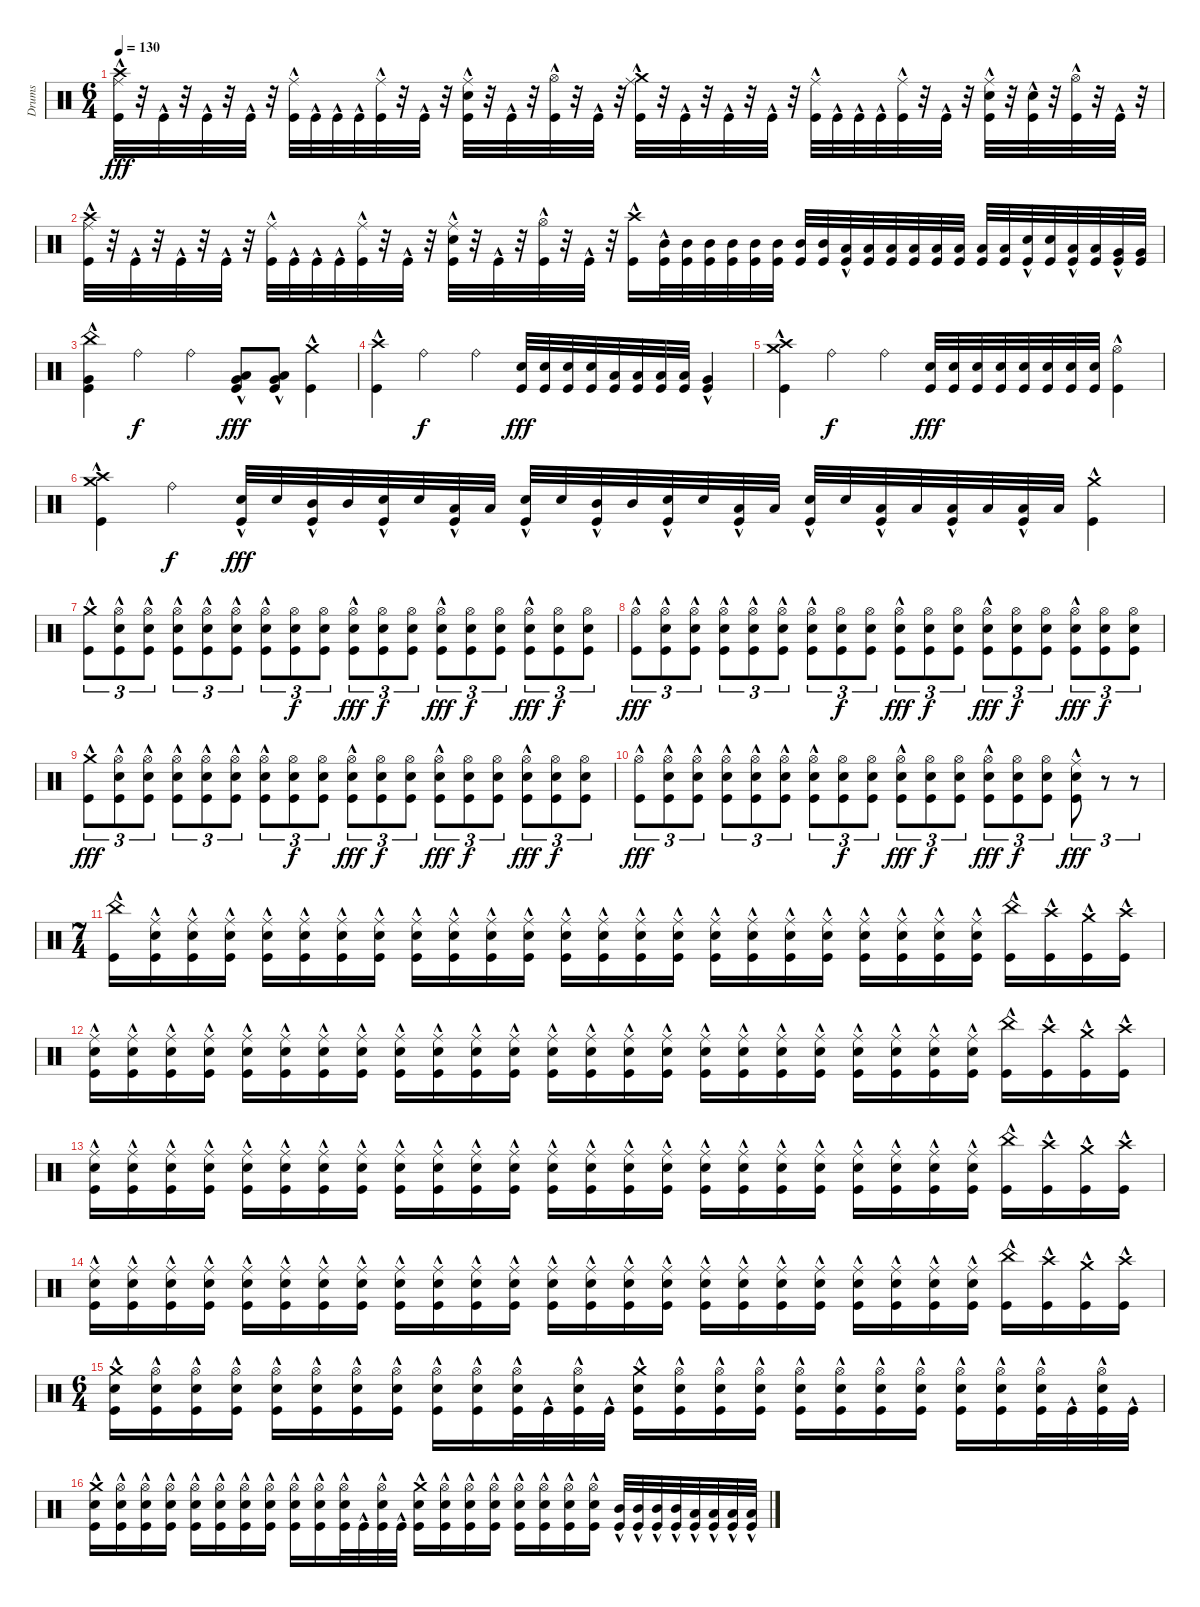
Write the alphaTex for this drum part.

\track ("Drums" "Drums") {instrument percussion}
\staff {score}
\articulation defaults
\ts (6 4)
\tempo 130
\clef neutral
\ks c
("Crash high (hit)" "Ride (middle)" "Kick (hit)"{hac}).32{dy fff} r.32 "Kick (hit)"{hac}.32 r.32 "Kick (hit)"{hac}.32 r.32 "Kick (hit)"{hac}.32 r.32 ("Ride (middle)" "Kick (hit)"{hac}).32 "Kick (hit)"{hac}.32 "Kick (hit)"{hac}.32 "Kick (hit)"{hac}.32 ("Ride (middle)" "Kick (hit)"{hac}).32 r.32 "Kick (hit)"{hac}.32 r.32 ("Ride (middle)" "Snare (hit) 2" "Kick (hit)"{hac}).32 r.32 "Kick (hit)"{hac}.32 r.32 ("Hi-Hat (open)" "Kick (hit)"{hac}).32 r.32 "Kick (hit)"{hac}.32 r.32 ("Crash medium (hit)" "Ride (middle)" "Kick (hit)"{hac}).32 r.32 "Kick (hit)"{hac}.32 r.32 "Kick (hit)"{hac}.32 r.32 "Kick (hit)"{hac}.32 r.32 ("Ride (middle)" "Kick (hit)"{hac}).32 "Kick (hit)"{hac}.32 "Kick (hit)"{hac}.32 "Kick (hit)"{hac}.32 ("Ride (middle)" "Kick (hit)"{hac}).32 r.32 "Kick (hit)"{hac}.32 r.32 ("Ride (middle)" "Snare (hit) 2" "Kick (hit)"{hac}).32 r.32 ("Snare (hit) 2" "Kick (hit)"{hac}).32 r.32 ("Hi-Hat (open)" "Kick (hit)"{hac}).32 r.32 "Kick (hit)"{hac}.32 r.32 |
("Crash high (hit)" "Ride (middle)" "Kick (hit)"{hac}).32 r.32 "Kick (hit)"{hac}.32 r.32 "Kick (hit)"{hac}.32 r.32 "Kick (hit)"{hac}.32 r.32 ("Ride (middle)" "Kick (hit)"{hac}).32 "Kick (hit)"{hac}.32 "Kick (hit)"{hac}.32 "Kick (hit)"{hac}.32 ("Ride (middle)" "Kick (hit)"{hac}).32 r.32 "Kick (hit)"{hac}.32 r.32 ("Ride (middle)" "Snare (hit) 2" "Kick (hit)"{hac}).32 r.32 "Kick (hit)"{hac}.32 r.32 ("Hi-Hat (open)" "Kick (hit)"{hac}).32 r.32 "Kick (hit)"{hac}.32 r.32 ("Crash high (hit)" "Kick (hit)"{hac}).16 ("Mid Tom (hit)" "Kick (hit)"{hac}).32 ("Mid Tom (hit)" "Kick (hit)").32 ("Mid Tom (hit)" "Kick (hit)").32 ("Mid Tom (hit)" "Kick (hit)").32 ("Mid Tom (hit)" "Kick (hit)").32 ("Mid Tom (hit)" "Kick (hit)").32 ("Mid Tom (hit)" "Kick (hit)").32 ("Mid Tom (hit)" "Kick (hit)").32 ("Low Tom (hit)" "Kick (hit)"{hac}).32 ("Low Tom (hit)" "Kick (hit)").32 ("Low Tom (hit)" "Kick (hit)").32 ("Low Tom (hit)" "Kick (hit)").32 ("Low Tom (hit)" "Kick (hit)").32 ("Low Tom (hit)" "Kick (hit)").32 ("Low Tom (hit)" "Kick (hit)").32 ("Low Tom (hit)" "Kick (hit)").32 ("Snare (hit) 2" "Kick (hit)"{hac}).32 ("Snare (hit) 2" "Kick (hit)").32 ("Low Tom (hit)" "Kick (hit)"{hac}).32 ("Low Tom (hit)" "Kick (hit)").32 ("Very Low Tom (hit)" "Kick (hit)"{hac}).32 ("Very Low Tom (hit)" "Kick (hit)").32 |
("China (hit)" "Very Low Tom (hit)" "Kick (hit)"{hac}).4 "Ride (bell)".2{dy f} "Ride (bell)".4 ("Very Low Tom (hit)" "Low Tom (hit)" "Kick (hit)"{hac}).8{dy fff} ("Very Low Tom (hit)" "Low Tom (hit)" "Kick (hit)"{hac}).8 ("Crash medium (hit)" "Kick (hit)"{hac}).4 |
("Crash high (hit)" "Kick (hit)"{hac}).4 "Ride (bell)".2{dy f} "Ride (bell)".4 ("Snare (hit) 2" "Kick (hit)").32{dy fff} ("Snare (hit) 2" "Kick (hit)").32 ("Snare (hit) 2" "Kick (hit)").32 ("Snare (hit) 2" "Kick (hit)").32 ("Low Tom (hit)" "Kick (hit)").32 ("Low Tom (hit)" "Kick (hit)").32 ("Low Tom (hit)" "Kick (hit)").32 ("Low Tom (hit)" "Kick (hit)").32 ("Very Low Tom (hit)"{hac} "Kick (hit)"{hac}).4 |
("Crash medium (hit)" "Crash high (hit)" "Kick (hit)"{hac}).4 "Ride (bell)".2{dy f} "Ride (bell)".4 ("Snare (hit) 2" "Kick (hit)").32{dy fff} ("Snare (hit) 2" "Kick (hit)").32 ("Snare (hit) 2" "Kick (hit)").32 ("Snare (hit) 2" "Kick (hit)").32 ("Snare (hit) 2" "Kick (hit)").32 ("Snare (hit) 2" "Kick (hit)").32 ("Snare (hit) 2" "Kick (hit)").32 ("Snare (hit) 2" "Kick (hit)").32 ("Hi-Hat (open)"{hac} "Kick (hit)").4 |
("Crash medium (hit)" "Crash high (hit)" "Kick (hit)"{hac}).4 "Ride (bell)".4{dy f} ("Snare (hit) 2" "Kick (hit)"{hac}).32{dy fff} "Snare (hit) 2".32 ("Mid Tom (hit)" "Kick (hit)"{hac}).32 "Mid Tom (hit)".32 ("Snare (hit) 2" "Kick (hit)"{hac}).32 "Snare (hit) 2".32 ("Low Tom (hit)" "Kick (hit)"{hac}).32 "Low Tom (hit)".32 ("Snare (hit) 2" "Kick (hit)"{hac}).32 "Snare (hit) 2".32 ("Mid Tom (hit)" "Kick (hit)"{hac}).32 "Mid Tom (hit)".32 ("Snare (hit) 2" "Kick (hit)"{hac}).32 "Snare (hit) 2".32 ("Low Tom (hit)" "Kick (hit)"{hac}).32 "Low Tom (hit)".32 ("Snare (hit) 2" "Kick (hit)"{hac}).32 "Snare (hit) 2".32 ("Low Tom (hit)" "Kick (hit)"{hac}).32 "Low Tom (hit)".32 ("Low Tom (hit)" "Kick (hit)"{hac}).32 "Low Tom (hit)".32 ("Low Tom (hit)" "Kick (hit)"{hac}).32 "Low Tom (hit)".32 ("Crash medium (hit)" "Kick (hit)"{hac}).4 |
("Crash medium (hit)" "Kick (hit)"{hac}).8{tu (3 2)} ("Hi-Hat (open)" "Snare (hit) 2" "Kick (hit)"{hac}).8{tu (3 2)} ("Hi-Hat (open)" "Snare (hit) 2" "Kick (hit)"{hac}).8{tu (3 2)} ("Hi-Hat (open)"{hac} "Snare (hit) 2" "Kick (hit)"{hac}).8{tu (3 2)} ("Hi-Hat (open)" "Snare (hit) 2" "Kick (hit)"{hac}).8{tu (3 2)} ("Hi-Hat (open)" "Snare (hit) 2" "Kick (hit)"{hac}).8{tu (3 2)} ("Hi-Hat (open)"{hac} "Snare (hit) 2" "Kick (hit)").8{tu (3 2)} ("Hi-Hat (open)" "Snare (hit) 2" "Kick (hit)").8{tu (3 2) dy f} ("Hi-Hat (open)" "Snare (hit) 2" "Kick (hit)").8{tu (3 2)} ("Hi-Hat (open)"{hac} "Snare (hit) 2" "Kick (hit)").8{tu (3 2) dy fff} ("Hi-Hat (open)" "Snare (hit) 2" "Kick (hit)").8{tu (3 2) dy f} ("Hi-Hat (open)" "Snare (hit) 2" "Kick (hit)").8{tu (3 2)} ("Hi-Hat (open)"{hac} "Snare (hit) 2" "Kick (hit)").8{tu (3 2) dy fff} ("Hi-Hat (open)" "Snare (hit) 2" "Kick (hit)").8{tu (3 2) dy f} ("Hi-Hat (open)" "Snare (hit) 2" "Kick (hit)").8{tu (3 2)} ("Hi-Hat (open)"{hac} "Snare (hit) 2" "Kick (hit)").8{tu (3 2) dy fff} ("Hi-Hat (open)" "Snare (hit) 2" "Kick (hit)").8{tu (3 2) dy f} ("Hi-Hat (open)" "Snare (hit) 2" "Kick (hit)").8{tu (3 2)} |
("Hi-Hat (open)"{hac} "Kick (hit)"{hac}).8{tu (3 2) dy fff} ("Hi-Hat (open)" "Snare (hit) 2" "Kick (hit)"{hac}).8{tu (3 2)} ("Hi-Hat (open)" "Snare (hit) 2" "Kick (hit)"{hac}).8{tu (3 2)} ("Hi-Hat (open)"{hac} "Snare (hit) 2" "Kick (hit)"{hac}).8{tu (3 2)} ("Hi-Hat (open)" "Snare (hit) 2" "Kick (hit)"{hac}).8{tu (3 2)} ("Hi-Hat (open)" "Snare (hit) 2" "Kick (hit)"{hac}).8{tu (3 2)} ("Hi-Hat (open)"{hac} "Snare (hit) 2" "Kick (hit)").8{tu (3 2)} ("Hi-Hat (open)" "Snare (hit) 2" "Kick (hit)").8{tu (3 2) dy f} ("Hi-Hat (open)" "Snare (hit) 2" "Kick (hit)").8{tu (3 2)} ("Hi-Hat (open)"{hac} "Snare (hit) 2" "Kick (hit)").8{tu (3 2) dy fff} ("Hi-Hat (open)" "Snare (hit) 2" "Kick (hit)").8{tu (3 2) dy f} ("Hi-Hat (open)" "Snare (hit) 2" "Kick (hit)").8{tu (3 2)} ("Hi-Hat (open)"{hac} "Snare (hit) 2" "Kick (hit)").8{tu (3 2) dy fff} ("Hi-Hat (open)" "Snare (hit) 2" "Kick (hit)").8{tu (3 2) dy f} ("Hi-Hat (open)" "Snare (hit) 2" "Kick (hit)").8{tu (3 2)} ("Hi-Hat (open)"{hac} "Snare (hit) 2" "Kick (hit)").8{tu (3 2) dy fff} ("Hi-Hat (open)" "Snare (hit) 2" "Kick (hit)").8{tu (3 2) dy f} ("Hi-Hat (open)" "Snare (hit) 2" "Kick (hit)").8{tu (3 2)} |
("Crash medium (hit)" "Kick (hit)"{hac}).8{tu (3 2) dy fff} ("Hi-Hat (open)" "Snare (hit) 2" "Kick (hit)"{hac}).8{tu (3 2)} ("Hi-Hat (open)" "Snare (hit) 2" "Kick (hit)"{hac}).8{tu (3 2)} ("Hi-Hat (open)"{hac} "Snare (hit) 2" "Kick (hit)"{hac}).8{tu (3 2)} ("Hi-Hat (open)" "Snare (hit) 2" "Kick (hit)"{hac}).8{tu (3 2)} ("Hi-Hat (open)" "Snare (hit) 2" "Kick (hit)"{hac}).8{tu (3 2)} ("Hi-Hat (open)"{hac} "Snare (hit) 2" "Kick (hit)").8{tu (3 2)} ("Hi-Hat (open)" "Snare (hit) 2" "Kick (hit)").8{tu (3 2) dy f} ("Hi-Hat (open)" "Snare (hit) 2" "Kick (hit)").8{tu (3 2)} ("Hi-Hat (open)"{hac} "Snare (hit) 2" "Kick (hit)").8{tu (3 2) dy fff} ("Hi-Hat (open)" "Snare (hit) 2" "Kick (hit)").8{tu (3 2) dy f} ("Hi-Hat (open)" "Snare (hit) 2" "Kick (hit)").8{tu (3 2)} ("Hi-Hat (open)"{hac} "Snare (hit) 2" "Kick (hit)").8{tu (3 2) dy fff} ("Hi-Hat (open)" "Snare (hit) 2" "Kick (hit)").8{tu (3 2) dy f} ("Hi-Hat (open)" "Snare (hit) 2" "Kick (hit)").8{tu (3 2)} ("Hi-Hat (open)"{hac} "Snare (hit) 2" "Kick (hit)").8{tu (3 2) dy fff} ("Hi-Hat (open)" "Snare (hit) 2" "Kick (hit)").8{tu (3 2) dy f} ("Hi-Hat (open)" "Snare (hit) 2" "Kick (hit)").8{tu (3 2)} |
("Hi-Hat (open)"{hac} "Kick (hit)"{hac}).8{tu (3 2) dy fff} ("Hi-Hat (open)" "Snare (hit) 2" "Kick (hit)"{hac}).8{tu (3 2)} ("Hi-Hat (open)" "Snare (hit) 2" "Kick (hit)"{hac}).8{tu (3 2)} ("Hi-Hat (open)"{hac} "Snare (hit) 2" "Kick (hit)"{hac}).8{tu (3 2)} ("Hi-Hat (open)" "Snare (hit) 2" "Kick (hit)"{hac}).8{tu (3 2)} ("Hi-Hat (open)" "Snare (hit) 2" "Kick (hit)"{hac}).8{tu (3 2)} ("Hi-Hat (open)"{hac} "Snare (hit) 2" "Kick (hit)").8{tu (3 2)} ("Hi-Hat (open)" "Snare (hit) 2" "Kick (hit)").8{tu (3 2) dy f} ("Hi-Hat (open)" "Snare (hit) 2" "Kick (hit)").8{tu (3 2)} ("Hi-Hat (open)"{hac} "Snare (hit) 2" "Kick (hit)").8{tu (3 2) dy fff} ("Hi-Hat (open)" "Snare (hit) 2" "Kick (hit)").8{tu (3 2) dy f} ("Hi-Hat (open)" "Snare (hit) 2" "Kick (hit)").8{tu (3 2)} ("Hi-Hat (open)"{hac} "Snare (hit) 2" "Kick (hit)").8{tu (3 2) dy fff} ("Hi-Hat (open)" "Snare (hit) 2" "Kick (hit)").8{tu (3 2) dy f} ("Hi-Hat (open)" "Snare (hit) 2" "Kick (hit)").8{tu (3 2)} ("Ride (middle)"{hac} "Snare (hit) 2" "Kick (hit)").8{tu (3 2) dy fff} r.8{tu (3 2)} r.8{tu (3 2)} |
\ts (7 4)
("China (hit)" "Kick (hit)"{hac}).16 ("Ride (middle)" "Snare (hit) 2" "Kick (hit)"{hac}).16 ("Ride (middle)"{hac} "Snare (hit) 2" "Kick (hit)"{hac}).16 ("Ride (middle)" "Snare (hit) 2" "Kick (hit)"{hac}).16 ("Ride (middle)"{hac} "Snare (hit) 2" "Kick (hit)"{hac}).16 ("Ride (middle)" "Snare (hit) 2" "Kick (hit)"{hac}).16 ("Ride (middle)"{hac} "Snare (hit) 2" "Kick (hit)"{hac}).16 ("Ride (middle)" "Snare (hit) 2" "Kick (hit)"{hac}).16 ("Ride (middle)"{hac} "Snare (hit) 2" "Kick (hit)"{hac}).16 ("Ride (middle)" "Snare (hit) 2" "Kick (hit)"{hac}).16 ("Ride (middle)"{hac} "Snare (hit) 2" "Kick (hit)"{hac}).16 ("Ride (middle)" "Snare (hit) 2" "Kick (hit)"{hac}).16 ("Ride (middle)"{hac} "Snare (hit) 2" "Kick (hit)"{hac}).16 ("Ride (middle)" "Snare (hit) 2" "Kick (hit)"{hac}).16 ("Ride (middle)"{hac} "Snare (hit) 2" "Kick (hit)"{hac}).16 ("Ride (middle)" "Snare (hit) 2" "Kick (hit)"{hac}).16 ("Ride (middle)"{hac} "Snare (hit) 2" "Kick (hit)"{hac}).16 ("Ride (middle)" "Snare (hit) 2" "Kick (hit)"{hac}).16 ("Ride (middle)"{hac} "Snare (hit) 2" "Kick (hit)"{hac}).16 ("Ride (middle)" "Snare (hit) 2" "Kick (hit)"{hac}).16 ("Ride (middle)"{hac} "Snare (hit) 2" "Kick (hit)"{hac}).16 ("Ride (middle)" "Snare (hit) 2" "Kick (hit)"{hac}).16 ("Ride (middle)"{hac} "Snare (hit) 2" "Kick (hit)"{hac}).16 ("Ride (middle)" "Snare (hit) 2" "Kick (hit)"{hac}).16 ("China (hit)" "Kick (hit)"{hac}).16 ("Crash high (hit)" "Kick (hit)"{hac}).16 ("Crash medium (hit)" "Kick (hit)"{hac}).16 ("Crash high (hit)" "Kick (hit)"{hac}).16 |
("Ride (middle)"{hac} "Snare (hit) 2" "Kick (hit)"{hac}).16 ("Ride (middle)" "Snare (hit) 2" "Kick (hit)"{hac}).16 ("Ride (middle)"{hac} "Snare (hit) 2" "Kick (hit)"{hac}).16 ("Ride (middle)" "Snare (hit) 2" "Kick (hit)"{hac}).16 ("Ride (middle)"{hac} "Snare (hit) 2" "Kick (hit)"{hac}).16 ("Ride (middle)" "Snare (hit) 2" "Kick (hit)"{hac}).16 ("Ride (middle)"{hac} "Snare (hit) 2" "Kick (hit)"{hac}).16 ("Ride (middle)" "Snare (hit) 2" "Kick (hit)"{hac}).16 ("Ride (middle)"{hac} "Snare (hit) 2" "Kick (hit)"{hac}).16 ("Ride (middle)" "Snare (hit) 2" "Kick (hit)"{hac}).16 ("Ride (middle)"{hac} "Snare (hit) 2" "Kick (hit)"{hac}).16 ("Ride (middle)" "Snare (hit) 2" "Kick (hit)"{hac}).16 ("Ride (middle)"{hac} "Snare (hit) 2" "Kick (hit)"{hac}).16 ("Ride (middle)" "Snare (hit) 2" "Kick (hit)"{hac}).16 ("Ride (middle)"{hac} "Snare (hit) 2" "Kick (hit)"{hac}).16 ("Ride (middle)" "Snare (hit) 2" "Kick (hit)"{hac}).16 ("Ride (middle)"{hac} "Snare (hit) 2" "Kick (hit)"{hac}).16 ("Ride (middle)" "Snare (hit) 2" "Kick (hit)"{hac}).16 ("Ride (middle)"{hac} "Snare (hit) 2" "Kick (hit)"{hac}).16 ("Ride (middle)"{hac} "Snare (hit) 2" "Kick (hit)"{hac}).16 ("Ride (middle)" "Snare (hit) 2" "Kick (hit)"{hac}).16 ("Ride (middle)"{hac} "Snare (hit) 2" "Kick (hit)"{hac}).16 ("Ride (middle)" "Snare (hit) 2" "Kick (hit)"{hac}).16 ("Ride (middle)" "Snare (hit) 2" "Kick (hit)"{hac}).16 ("China (hit)" "Kick (hit)"{hac}).16 ("Crash high (hit)" "Kick (hit)"{hac}).16 ("Crash medium (hit)" "Kick (hit)"{hac}).16 ("Crash high (hit)" "Kick (hit)"{hac}).16 |
("Ride (middle)"{hac} "Snare (hit) 2" "Kick (hit)"{hac}).16 ("Ride (middle)" "Snare (hit) 2" "Kick (hit)"{hac}).16 ("Ride (middle)"{hac} "Snare (hit) 2" "Kick (hit)"{hac}).16 ("Ride (middle)" "Snare (hit) 2" "Kick (hit)"{hac}).16 ("Ride (middle)"{hac} "Snare (hit) 2" "Kick (hit)"{hac}).16 ("Ride (middle)" "Snare (hit) 2" "Kick (hit)"{hac}).16 ("Ride (middle)"{hac} "Snare (hit) 2" "Kick (hit)"{hac}).16 ("Ride (middle)" "Snare (hit) 2" "Kick (hit)"{hac}).16 ("Ride (middle)"{hac} "Snare (hit) 2" "Kick (hit)"{hac}).16 ("Ride (middle)" "Snare (hit) 2" "Kick (hit)"{hac}).16 ("Ride (middle)"{hac} "Snare (hit) 2" "Kick (hit)"{hac}).16 ("Ride (middle)" "Snare (hit) 2" "Kick (hit)"{hac}).16 ("Ride (middle)"{hac} "Snare (hit) 2" "Kick (hit)"{hac}).16 ("Ride (middle)" "Snare (hit) 2" "Kick (hit)"{hac}).16 ("Ride (middle)"{hac} "Snare (hit) 2" "Kick (hit)"{hac}).16 ("Ride (middle)" "Snare (hit) 2" "Kick (hit)"{hac}).16 ("Ride (middle)"{hac} "Snare (hit) 2" "Kick (hit)"{hac}).16 ("Ride (middle)" "Snare (hit) 2" "Kick (hit)"{hac}).16 ("Ride (middle)"{hac} "Snare (hit) 2" "Kick (hit)"{hac}).16 ("Ride (middle)"{hac} "Snare (hit) 2" "Kick (hit)"{hac}).16 ("Ride (middle)" "Snare (hit) 2" "Kick (hit)"{hac}).16 ("Ride (middle)"{hac} "Snare (hit) 2" "Kick (hit)"{hac}).16 ("Ride (middle)" "Snare (hit) 2" "Kick (hit)"{hac}).16 ("Ride (middle)" "Snare (hit) 2" "Kick (hit)"{hac}).16 ("China (hit)" "Kick (hit)"{hac}).16 ("Crash high (hit)" "Kick (hit)"{hac}).16 ("Crash medium (hit)" "Kick (hit)"{hac}).16 ("Crash high (hit)" "Kick (hit)"{hac}).16 |
("Ride (middle)"{hac} "Snare (hit) 2" "Kick (hit)"{hac}).16 ("Ride (middle)" "Snare (hit) 2" "Kick (hit)"{hac}).16 ("Ride (middle)"{hac} "Snare (hit) 2" "Kick (hit)"{hac}).16 ("Ride (middle)" "Snare (hit) 2" "Kick (hit)"{hac}).16 ("Ride (middle)"{hac} "Snare (hit) 2" "Kick (hit)"{hac}).16 ("Ride (middle)" "Snare (hit) 2" "Kick (hit)"{hac}).16 ("Ride (middle)"{hac} "Snare (hit) 2" "Kick (hit)"{hac}).16 ("Ride (middle)" "Snare (hit) 2" "Kick (hit)"{hac}).16 ("Ride (middle)"{hac} "Snare (hit) 2" "Kick (hit)"{hac}).16 ("Ride (middle)" "Snare (hit) 2" "Kick (hit)"{hac}).16 ("Ride (middle)"{hac} "Snare (hit) 2" "Kick (hit)"{hac}).16 ("Ride (middle)" "Snare (hit) 2" "Kick (hit)"{hac}).16 ("Ride (middle)"{hac} "Snare (hit) 2" "Kick (hit)"{hac}).16 ("Ride (middle)" "Snare (hit) 2" "Kick (hit)"{hac}).16 ("Ride (middle)"{hac} "Snare (hit) 2" "Kick (hit)"{hac}).16 ("Ride (middle)" "Snare (hit) 2" "Kick (hit)"{hac}).16 ("Ride (middle)"{hac} "Snare (hit) 2" "Kick (hit)"{hac}).16 ("Ride (middle)" "Snare (hit) 2" "Kick (hit)"{hac}).16 ("Ride (middle)"{hac} "Snare (hit) 2" "Kick (hit)"{hac}).16 ("Ride (middle)"{hac} "Snare (hit) 2" "Kick (hit)"{hac}).16 ("Ride (middle)" "Snare (hit) 2" "Kick (hit)"{hac}).16 ("Ride (middle)"{hac} "Snare (hit) 2" "Kick (hit)"{hac}).16 ("Ride (middle)" "Snare (hit) 2" "Kick (hit)"{hac}).16 ("Ride (middle)" "Snare (hit) 2" "Kick (hit)"{hac}).16 ("China (hit)" "Kick (hit)"{hac}).16 ("Crash high (hit)" "Kick (hit)"{hac}).16 ("Crash medium (hit)" "Kick (hit)"{hac}).16 ("Crash high (hit)" "Kick (hit)"{hac}).16 |
\ts (6 4)
("Crash medium (hit)" "Snare (hit) 2" "Kick (hit)"{hac}).16 ("Hi-Hat (open)" "Snare (hit) 2" "Kick (hit)"{hac}).16 ("Hi-Hat (open)" "Snare (hit) 2" "Kick (hit)"{hac}).16 ("Hi-Hat (open)" "Snare (hit) 2" "Kick (hit)"{hac}).16 ("Hi-Hat (open)" "Snare (hit) 2" "Kick (hit)"{hac}).16 ("Hi-Hat (open)" "Snare (hit) 2" "Kick (hit)"{hac}).16 ("Hi-Hat (open)" "Snare (hit) 2" "Kick (hit)"{hac}).16 ("Hi-Hat (open)" "Snare (hit) 2" "Kick (hit)"{hac}).16 ("Hi-Hat (open)" "Snare (hit) 2" "Kick (hit)"{hac}).16 ("Hi-Hat (open)" "Snare (hit) 2" "Kick (hit)"{hac}).16 ("Hi-Hat (open)" "Snare (hit) 2" "Kick (hit)"{hac}).32 "Kick (hit)"{hac}.32 ("Hi-Hat (open)" "Snare (hit) 2" "Kick (hit)"{hac}).32 "Kick (hit)"{hac}.32 ("Crash medium (hit)" "Snare (hit) 2" "Kick (hit)"{hac}).16 ("Hi-Hat (open)" "Snare (hit) 2" "Kick (hit)"{hac}).16 ("Hi-Hat (open)" "Snare (hit) 2" "Kick (hit)"{hac}).16 ("Hi-Hat (open)" "Snare (hit) 2" "Kick (hit)"{hac}).16 ("Hi-Hat (open)" "Snare (hit) 2" "Kick (hit)"{hac}).16 ("Hi-Hat (open)" "Snare (hit) 2" "Kick (hit)"{hac}).16 ("Hi-Hat (open)" "Snare (hit) 2" "Kick (hit)"{hac}).16 ("Hi-Hat (open)" "Snare (hit) 2" "Kick (hit)"{hac}).16 ("Hi-Hat (open)" "Snare (hit) 2" "Kick (hit)"{hac}).16 ("Hi-Hat (open)" "Snare (hit) 2" "Kick (hit)"{hac}).16 ("Hi-Hat (open)" "Snare (hit) 2" "Kick (hit)"{hac}).32 "Kick (hit)"{hac}.32 ("Hi-Hat (open)" "Snare (hit) 2" "Kick (hit)"{hac}).32 "Kick (hit)"{hac}.32 |
("Crash medium (hit)" "Snare (hit) 2" "Kick (hit)"{hac}).16 ("Hi-Hat (open)" "Snare (hit) 2" "Kick (hit)"{hac}).16 ("Hi-Hat (open)" "Snare (hit) 2" "Kick (hit)"{hac}).16 ("Hi-Hat (open)" "Snare (hit) 2" "Kick (hit)"{hac}).16 ("Hi-Hat (open)" "Snare (hit) 2" "Kick (hit)"{hac}).16 ("Hi-Hat (open)" "Snare (hit) 2" "Kick (hit)"{hac}).16 ("Hi-Hat (open)" "Snare (hit) 2" "Kick (hit)"{hac}).16 ("Hi-Hat (open)" "Snare (hit) 2" "Kick (hit)"{hac}).16 ("Hi-Hat (open)" "Snare (hit) 2" "Kick (hit)"{hac}).16 ("Hi-Hat (open)" "Snare (hit) 2" "Kick (hit)"{hac}).16 ("Hi-Hat (open)" "Snare (hit) 2" "Kick (hit)"{hac}).32 "Kick (hit)"{hac}.32 ("Hi-Hat (open)" "Snare (hit) 2" "Kick (hit)"{hac}).32 "Kick (hit)"{hac}.32 ("Crash medium (hit)" "Snare (hit) 2" "Kick (hit)"{hac}).16 ("Hi-Hat (open)" "Snare (hit) 2" "Kick (hit)"{hac}).16 ("Hi-Hat (open)" "Snare (hit) 2" "Kick (hit)"{hac}).16 ("Hi-Hat (open)" "Snare (hit) 2" "Kick (hit)"{hac}).16 ("Hi-Hat (open)" "Snare (hit) 2" "Kick (hit)"{hac}).16 ("Hi-Hat (open)" "Snare (hit) 2" "Kick (hit)"{hac}).16 ("Hi-Hat (open)" "Snare (hit) 2" "Kick (hit)"{hac}).16 ("Hi-Hat (open)" "Snare (hit) 2" "Kick (hit)"{hac}).16 ("Mid Tom (hit)" "Kick (hit)"{hac}).32 ("Mid Tom (hit)" "Kick (hit)"{hac}).32 ("Mid Tom (hit)" "Kick (hit)"{hac}).32 ("Mid Tom (hit)" "Kick (hit)"{hac}).32 ("Low Tom (hit)" "Kick (hit)"{hac}).32 ("Low Tom (hit)" "Kick (hit)"{hac}).32 ("Low Tom (hit)" "Kick (hit)"{hac}).32 ("Low Tom (hit)" "Kick (hit)"{hac}).32
